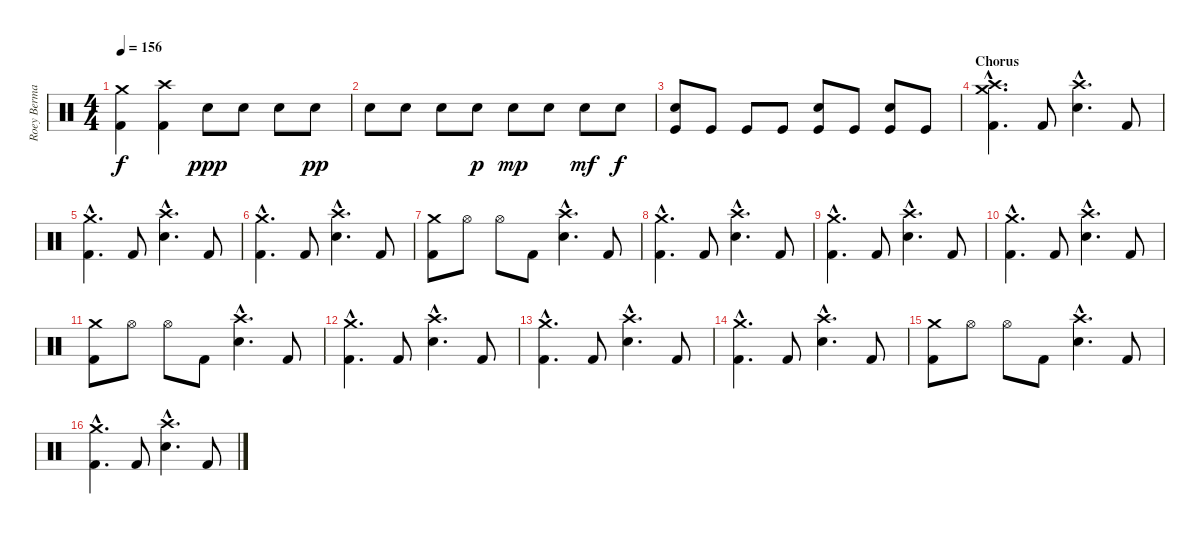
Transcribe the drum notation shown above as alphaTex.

\track ("Roey Berman" "Roey Berma") {instrument percussion}
\staff {score}
\articulation defaults
\ts (4 4)
\tempo 156
\clef neutral
\ks c
("Crash medium (hit)" "Kick (hit) 2").4{dy f} ("Crash high (hit)" "Kick (hit) 2").4 "Electric Snare (hit)".8{dy ppp} "Electric Snare (hit)".8 "Electric Snare (hit)".8 "Electric Snare (hit)".8{dy pp} |
"Electric Snare (hit)".8 "Electric Snare (hit)".8 "Electric Snare (hit)".8 "Electric Snare (hit)".8{dy p} "Electric Snare (hit)".8{dy mp} "Electric Snare (hit)".8 "Electric Snare (hit)".8{dy mf} "Electric Snare (hit)".8{dy f} |
("Electric Snare (hit)" "Kick (hit)").8 "Kick (hit)".8 "Kick (hit)".8 "Kick (hit)".8 ("Snare (hit) 2" "Kick (hit)").8 "Kick (hit)".8 ("Snare (hit) 2" "Kick (hit)").8 "Kick (hit)".8 |
\section ("" "Chorus")
("Crash high (hit)"{hac} "Crash medium (hit)"{hac} "Kick (hit) 2"{hac}).4{d} "Kick (hit) 2".8 ("Crash high (hit)"{hac} "Electric Snare (hit)"{hac}).4{d} "Kick (hit) 2".8 |
("Crash medium (hit)"{hac} "Kick (hit) 2"{hac}).4{d} "Kick (hit) 2".8 ("Crash high (hit)"{hac} "Electric Snare (hit)"{hac}).4{d} "Kick (hit) 2".8 |
("Crash medium (hit)"{hac} "Kick (hit) 2"{hac}).4{d} "Kick (hit) 2".8 ("Crash high (hit)"{hac} "Electric Snare (hit)"{hac}).4{d} "Kick (hit) 2".8 |
("Crash medium (hit)" "Kick (hit) 2").8 "Hi-Hat (open)".8 "Hi-Hat (open)".8 "Kick (hit) 2".8 ("Crash high (hit)"{hac} "Electric Snare (hit)"{hac}).4{d} "Kick (hit) 2".8 |
("Crash medium (hit)"{hac} "Kick (hit) 2"{hac}).4{d} "Kick (hit) 2".8 ("Crash high (hit)"{hac} "Electric Snare (hit)"{hac}).4{d} "Kick (hit) 2".8 |
("Crash medium (hit)"{hac} "Kick (hit) 2"{hac}).4{d} "Kick (hit) 2".8 ("Crash high (hit)"{hac} "Electric Snare (hit)"{hac}).4{d} "Kick (hit) 2".8 |
("Crash medium (hit)"{hac} "Kick (hit) 2"{hac}).4{d} "Kick (hit) 2".8 ("Crash high (hit)"{hac} "Electric Snare (hit)"{hac}).4{d} "Kick (hit) 2".8 |
("Crash medium (hit)" "Kick (hit) 2").8 "Hi-Hat (open)".8 "Hi-Hat (open)".8 "Kick (hit) 2".8 ("Crash high (hit)"{hac} "Electric Snare (hit)"{hac}).4{d} "Kick (hit) 2".8 |
("Crash medium (hit)"{hac} "Kick (hit) 2"{hac}).4{d} "Kick (hit) 2".8 ("Crash high (hit)"{hac} "Electric Snare (hit)"{hac}).4{d} "Kick (hit) 2".8 |
("Crash medium (hit)"{hac} "Kick (hit) 2"{hac}).4{d} "Kick (hit) 2".8 ("Crash high (hit)"{hac} "Electric Snare (hit)"{hac}).4{d} "Kick (hit) 2".8 |
("Crash medium (hit)"{hac} "Kick (hit) 2"{hac}).4{d} "Kick (hit) 2".8 ("Crash high (hit)"{hac} "Electric Snare (hit)"{hac}).4{d} "Kick (hit) 2".8 |
("Crash medium (hit)" "Kick (hit) 2").8 "Hi-Hat (open)".8 "Hi-Hat (open)".8 "Kick (hit) 2".8 ("Crash high (hit)"{hac} "Electric Snare (hit)"{hac}).4{d} "Kick (hit) 2".8 |
("Crash medium (hit)"{hac} "Kick (hit) 2"{hac}).4{d} "Kick (hit) 2".8 ("Crash high (hit)"{hac} "Electric Snare (hit)"{hac}).4{d} "Kick (hit) 2".8
